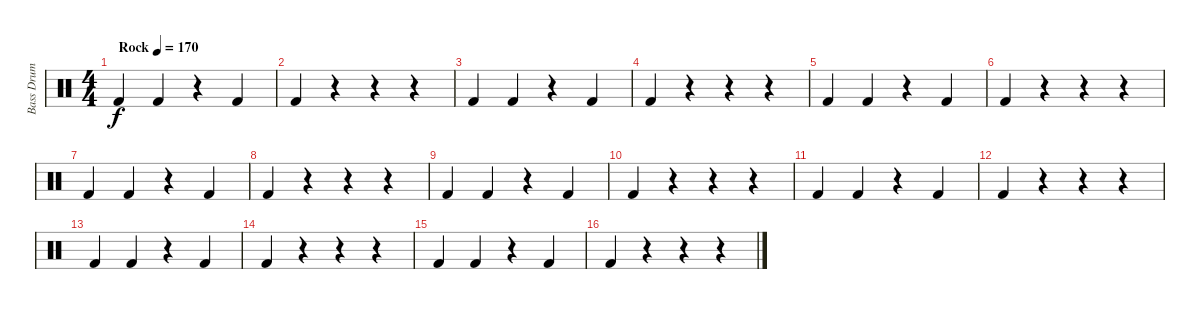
\track ("Bass Drum" "Bass Drum") {instrument percussion}
\staff {score}
\articulation defaults
\ts (4 4)
\tempo (170 "Rock")
\clef neutral
\ks c "Kick (hit) 2".4{dy f} "Kick (hit) 2".4
r.4 "Kick (hit) 2".4 |
"Kick (hit) 2".4 r.4 r.4 r.4 |
"Kick (hit) 2".4 "Kick (hit) 2".4 r.4 "Kick (hit) 2".4 |
"Kick (hit) 2".4 r.4 r.4 r.4 |
"Kick (hit) 2".4 "Kick (hit) 2".4 r.4 "Kick (hit) 2".4 |
"Kick (hit) 2".4 r.4 r.4 r.4 |
"Kick (hit) 2".4 "Kick (hit) 2".4 r.4 "Kick (hit) 2".4 |
"Kick (hit) 2".4 r.4 r.4 r.4 |
"Kick (hit) 2".4 "Kick (hit) 2".4 r.4 "Kick (hit) 2".4 |
"Kick (hit) 2".4 r.4 r.4 r.4 |
"Kick (hit) 2".4 "Kick (hit) 2".4 r.4 "Kick (hit) 2".4 |
"Kick (hit) 2".4 r.4 r.4 r.4 |
"Kick (hit) 2".4 "Kick (hit) 2".4 r.4 "Kick (hit) 2".4 |
"Kick (hit) 2".4 r.4 r.4 r.4 |
"Kick (hit) 2".4 "Kick (hit) 2".4 r.4 "Kick (hit) 2".4 |
"Kick (hit) 2".4 r.4 r.4 r.4
